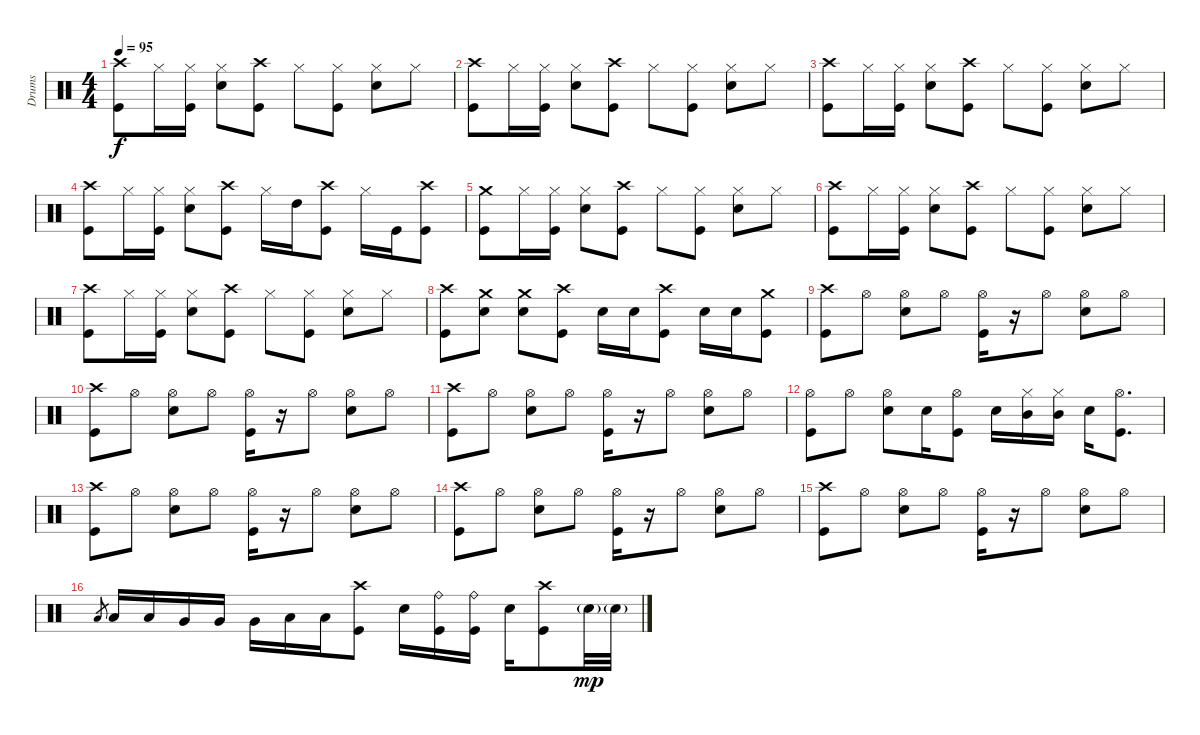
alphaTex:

\track ("Drums" "Drums") {instrument percussion}
\staff {score}
\articulation defaults
\ts (4 4)
\tempo 95
\clef neutral
\ks c
("Crash high (hit)" "Kick (hit)").8{dy f} "Hi-Hat (closed)".16 ("Hi-Hat (closed)" "Kick (hit)").16 ("Hi-Hat (closed)" "Electric Snare (hit)").8 ("Crash high (hit)" "Kick (hit)").8 "Hi-Hat (closed)".8 ("Hi-Hat (closed)" "Kick (hit)").8 ("Hi-Hat (closed)" "Electric Snare (hit)").8 "Hi-Hat (closed)".8 |
("Crash high (hit)" "Kick (hit)").8 "Hi-Hat (closed)".16 ("Hi-Hat (closed)" "Kick (hit)").16 ("Hi-Hat (closed)" "Electric Snare (hit)").8 ("Crash high (hit)" "Kick (hit)").8 "Hi-Hat (closed)".8 ("Hi-Hat (closed)" "Kick (hit)").8 ("Hi-Hat (closed)" "Electric Snare (hit)").8 "Hi-Hat (closed)".8 |
("Crash high (hit)" "Kick (hit)").8 "Hi-Hat (closed)".16 ("Hi-Hat (closed)" "Kick (hit)").16 ("Hi-Hat (closed)" "Electric Snare (hit)").8 ("Crash high (hit)" "Kick (hit)").8 "Hi-Hat (closed)".8 ("Hi-Hat (closed)" "Kick (hit)").8 ("Hi-Hat (closed)" "Electric Snare (hit)").8 "Hi-Hat (closed)".8 |
("Crash high (hit)" "Kick (hit)").8 "Hi-Hat (closed)".16 ("Hi-Hat (closed)" "Kick (hit)").16 ("Hi-Hat (closed)" "Electric Snare (hit)").8 ("Crash high (hit)" "Kick (hit)").8 "Hi-Hat (closed)".16 "High Tom (hit)".16 ("Crash high (hit)" "Kick (hit)").8 "Hi-Hat (closed)".16 "Kick (hit)".16 ("Crash high (hit)" "Kick (hit)").8 |
("Crash medium (hit)" "Kick (hit)").8 "Hi-Hat (closed)".16 ("Hi-Hat (closed)" "Kick (hit)").16 ("Hi-Hat (closed)" "Electric Snare (hit)").8 ("Crash high (hit)" "Kick (hit)").8 "Hi-Hat (closed)".8 ("Hi-Hat (closed)" "Kick (hit)").8 ("Hi-Hat (closed)" "Electric Snare (hit)").8 "Hi-Hat (closed)".8 |
("Crash high (hit)" "Kick (hit)").8 "Hi-Hat (closed)".16 ("Hi-Hat (closed)" "Kick (hit)").16 ("Hi-Hat (closed)" "Electric Snare (hit)").8 ("Crash high (hit)" "Kick (hit)").8 "Hi-Hat (closed)".8 ("Hi-Hat (closed)" "Kick (hit)").8 ("Hi-Hat (closed)" "Electric Snare (hit)").8 "Hi-Hat (closed)".8 |
("Crash high (hit)" "Kick (hit)").8 "Hi-Hat (closed)".16 ("Hi-Hat (closed)" "Kick (hit)").16 ("Hi-Hat (closed)" "Electric Snare (hit)").8 ("Crash high (hit)" "Kick (hit)").8 "Hi-Hat (closed)".8 ("Hi-Hat (closed)" "Kick (hit)").8 ("Hi-Hat (closed)" "Electric Snare (hit)").8 "Hi-Hat (closed)".8 |
("Crash high (hit)" "Kick (hit)").8 ("Crash medium (hit)" "Electric Snare (hit)").8 ("Crash medium (hit)" "Electric Snare (hit)").8 ("Crash high (hit)" "Kick (hit)").8 "Electric Snare (hit)".16 "Electric Snare (hit)".16 ("Crash high (hit)" "Kick (hit)").8 "Electric Snare (hit)".16 "Electric Snare (hit)".16 ("Crash medium (hit)" "Kick (hit)").8 |
("Crash high (hit)" "Kick (hit)").8 "Hi-Hat (open)".8 ("Hi-Hat (open)" "Electric Snare (hit)").8 "Hi-Hat (open)".8 ("Hi-Hat (open)" "Kick (hit)").16 r.16 "Hi-Hat (open)".8 ("Hi-Hat (open)" "Electric Snare (hit)").8 "Hi-Hat (open)".8 |
("Crash high (hit)" "Kick (hit)").8 "Hi-Hat (open)".8 ("Hi-Hat (open)" "Electric Snare (hit)").8 "Hi-Hat (open)".8 ("Hi-Hat (open)" "Kick (hit)").16 r.16 "Hi-Hat (open)".8 ("Hi-Hat (open)" "Electric Snare (hit)").8 "Hi-Hat (open)".8 |
("Crash high (hit)" "Kick (hit)").8 "Hi-Hat (open)".8 ("Hi-Hat (open)" "Electric Snare (hit)").8 "Hi-Hat (open)".8 ("Hi-Hat (open)" "Kick (hit)").16 r.16 "Hi-Hat (open)".8 ("Hi-Hat (open)" "Electric Snare (hit)").8 "Hi-Hat (open)".8 |
("Hi-Hat (open)" "Kick (hit)").8 "Hi-Hat (open)".8 ("Hi-Hat (open)" "Electric Snare (hit)").8 "Electric Snare (hit)".16 ("Hi-Hat (open)" "Kick (hit)").8 "Electric Snare (hit)".16 ("Hi-Hat (closed)" "Mid Tom (hit)").16 ("Hi-Hat (closed)" "Mid Tom (hit)").16 "Electric Snare (hit)".16 ("Hi-Hat (open)" "Kick (hit)").8{d} |
("Crash high (hit)" "Kick (hit)").8 "Hi-Hat (open)".8 ("Hi-Hat (open)" "Electric Snare (hit)").8 "Hi-Hat (open)".8 ("Hi-Hat (open)" "Kick (hit)").16 r.16 "Hi-Hat (open)".8 ("Hi-Hat (open)" "Electric Snare (hit)").8 "Hi-Hat (open)".8 |
("Crash high (hit)" "Kick (hit)").8 "Hi-Hat (open)".8 ("Hi-Hat (open)" "Electric Snare (hit)").8 "Hi-Hat (open)".8 ("Hi-Hat (open)" "Kick (hit)").16 r.16 "Hi-Hat (open)".8 ("Hi-Hat (open)" "Electric Snare (hit)").8 "Hi-Hat (open)".8 |
("Crash high (hit)" "Kick (hit)").8 "Hi-Hat (open)".8 ("Hi-Hat (open)" "Electric Snare (hit)").8 "Hi-Hat (open)".8 ("Hi-Hat (open)" "Kick (hit)").16 r.16 "Hi-Hat (open)".8 ("Hi-Hat (open)" "Electric Snare (hit)").8 "Hi-Hat (open)".8 |
"Low Tom (hit)".8{gr} "Low Tom (hit)".16 "Low Tom (hit)".16 "Very Low Tom (hit)".16 "Very Low Tom (hit)".16 "Very Low Tom (hit)".16 "Low Floor Tom (hit)".16 "Low Floor Tom (hit)".16 ("Crash high (hit)" "Kick (hit)").8 "Electric Snare (hit)".16 ("Ride (bell)" "Kick (hit)").16 ("Ride (bell)" "Kick (hit)").16 "Electric Snare (hit)".16 ("Crash high (hit)" "Kick (hit)").8 "Electric Snare (hit)"{g}.32{dy mp} "Electric Snare (hit)"{g}.32
